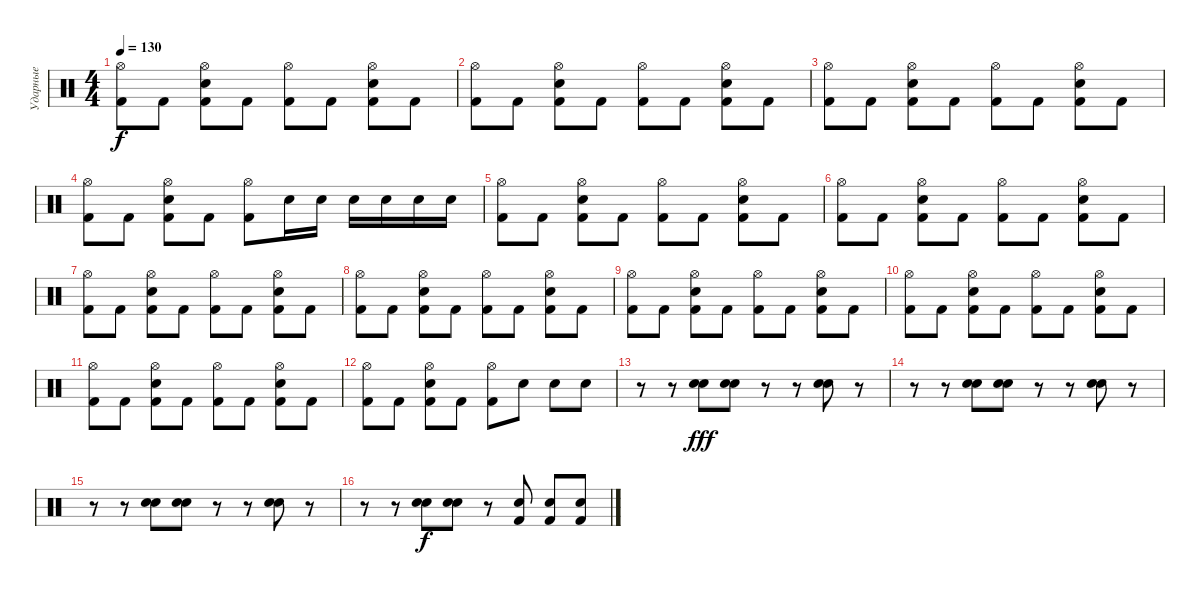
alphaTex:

\track ("Ударные" "Ударные") {instrument percussion}
\staff {score}
\articulation defaults
\ts (4 4)
\tempo 130
\clef neutral
\ks c
("Hi-Hat (open)" "Kick (hit) 2").8{dy f} "Kick (hit) 2".8 ("Hi-Hat (open)" "Kick (hit) 2" "Electric Snare (hit)").8 "Kick (hit) 2".8 ("Hi-Hat (open)" "Kick (hit) 2").8 "Kick (hit) 2".8 ("Hi-Hat (open)" "Kick (hit) 2" "Electric Snare (hit)").8 "Kick (hit) 2".8 |
("Hi-Hat (open)" "Kick (hit) 2").8 "Kick (hit) 2".8 ("Hi-Hat (open)" "Kick (hit) 2" "Electric Snare (hit)").8 "Kick (hit) 2".8 ("Hi-Hat (open)" "Kick (hit) 2").8 "Kick (hit) 2".8 ("Hi-Hat (open)" "Kick (hit) 2" "Electric Snare (hit)").8 "Kick (hit) 2".8 |
("Hi-Hat (open)" "Kick (hit) 2").8 "Kick (hit) 2".8 ("Hi-Hat (open)" "Kick (hit) 2" "Electric Snare (hit)").8 "Kick (hit) 2".8 ("Hi-Hat (open)" "Kick (hit) 2").8 "Kick (hit) 2".8 ("Hi-Hat (open)" "Kick (hit) 2" "Electric Snare (hit)").8 "Kick (hit) 2".8 |
("Hi-Hat (open)" "Kick (hit) 2").8 "Kick (hit) 2".8 ("Hi-Hat (open)" "Kick (hit) 2" "Electric Snare (hit)").8 "Kick (hit) 2".8 ("Hi-Hat (open)" "Kick (hit) 2").8 "Electric Snare (hit)".16 "Electric Snare (hit)".16 "Electric Snare (hit)".16 "Electric Snare (hit)".16 "Electric Snare (hit)".16 "Electric Snare (hit)".16 |
("Hi-Hat (open)" "Kick (hit) 2").8 "Kick (hit) 2".8 ("Hi-Hat (open)" "Kick (hit) 2" "Electric Snare (hit)").8 "Kick (hit) 2".8 ("Hi-Hat (open)" "Kick (hit) 2").8 "Kick (hit) 2".8 ("Hi-Hat (open)" "Kick (hit) 2" "Electric Snare (hit)").8 "Kick (hit) 2".8 |
("Hi-Hat (open)" "Kick (hit) 2").8 "Kick (hit) 2".8 ("Hi-Hat (open)" "Kick (hit) 2" "Electric Snare (hit)").8 "Kick (hit) 2".8 ("Hi-Hat (open)" "Kick (hit) 2").8 "Kick (hit) 2".8 ("Hi-Hat (open)" "Kick (hit) 2" "Electric Snare (hit)").8 "Kick (hit) 2".8 |
("Hi-Hat (open)" "Kick (hit) 2").8 "Kick (hit) 2".8 ("Hi-Hat (open)" "Kick (hit) 2" "Electric Snare (hit)").8 "Kick (hit) 2".8 ("Hi-Hat (open)" "Kick (hit) 2").8 "Kick (hit) 2".8 ("Hi-Hat (open)" "Kick (hit) 2" "Electric Snare (hit)").8 "Kick (hit) 2".8 |
("Hi-Hat (open)" "Kick (hit) 2").8 "Kick (hit) 2".8 ("Hi-Hat (open)" "Kick (hit) 2" "Electric Snare (hit)").8 "Kick (hit) 2".8 ("Hi-Hat (open)" "Kick (hit) 2").8 "Kick (hit) 2".8 ("Hi-Hat (open)" "Kick (hit) 2" "Electric Snare (hit)").8 "Kick (hit) 2".8 |
("Hi-Hat (open)" "Kick (hit) 2").8 "Kick (hit) 2".8 ("Hi-Hat (open)" "Kick (hit) 2" "Electric Snare (hit)").8 "Kick (hit) 2".8 ("Hi-Hat (open)" "Kick (hit) 2").8 "Kick (hit) 2".8 ("Hi-Hat (open)" "Kick (hit) 2" "Electric Snare (hit)").8 "Kick (hit) 2".8 |
("Hi-Hat (open)" "Kick (hit) 2").8 "Kick (hit) 2".8 ("Hi-Hat (open)" "Kick (hit) 2" "Electric Snare (hit)").8 "Kick (hit) 2".8 ("Hi-Hat (open)" "Kick (hit) 2").8 "Kick (hit) 2".8 ("Hi-Hat (open)" "Kick (hit) 2" "Electric Snare (hit)").8 "Kick (hit) 2".8 |
("Hi-Hat (open)" "Kick (hit) 2").8 "Kick (hit) 2".8 ("Hi-Hat (open)" "Kick (hit) 2" "Electric Snare (hit)").8 "Kick (hit) 2".8 ("Hi-Hat (open)" "Kick (hit) 2").8 "Kick (hit) 2".8 ("Hi-Hat (open)" "Kick (hit) 2" "Electric Snare (hit)").8 "Kick (hit) 2".8 |
("Hi-Hat (open)" "Kick (hit) 2").8 "Kick (hit) 2".8 ("Hi-Hat (open)" "Kick (hit) 2" "Electric Snare (hit)").8 "Kick (hit) 2".8 ("Hi-Hat (open)" "Kick (hit) 2").8 "Electric Snare (hit)".8 "Electric Snare (hit)".8 "Electric Snare (hit)".8 |
r.8 r.8 ("Hand Clap (hit)" "Hand Clap (hit)").8{dy fff} ("Hand Clap (hit)" "Hand Clap (hit)").8 r.8 r.8 ("Hand Clap (hit)" "Hand Clap (hit)").8 r.8 |
r.8 r.8 ("Hand Clap (hit)" "Hand Clap (hit)").8 ("Hand Clap (hit)" "Hand Clap (hit)").8 r.8 r.8 ("Hand Clap (hit)" "Hand Clap (hit)").8 r.8 |
r.8 r.8 ("Hand Clap (hit)" "Hand Clap (hit)").8 ("Hand Clap (hit)" "Hand Clap (hit)").8 r.8 r.8 ("Hand Clap (hit)" "Hand Clap (hit)").8 r.8 |
r.8 r.8 ("Hand Clap (hit)" "Hand Clap (hit)").8{dy f} ("Hand Clap (hit)" "Hand Clap (hit)").8 r.8 ("Electric Snare (hit)" "Kick (hit) 2").8 ("Electric Snare (hit)" "Kick (hit) 2").8 ("Electric Snare (hit)" "Kick (hit) 2").8
